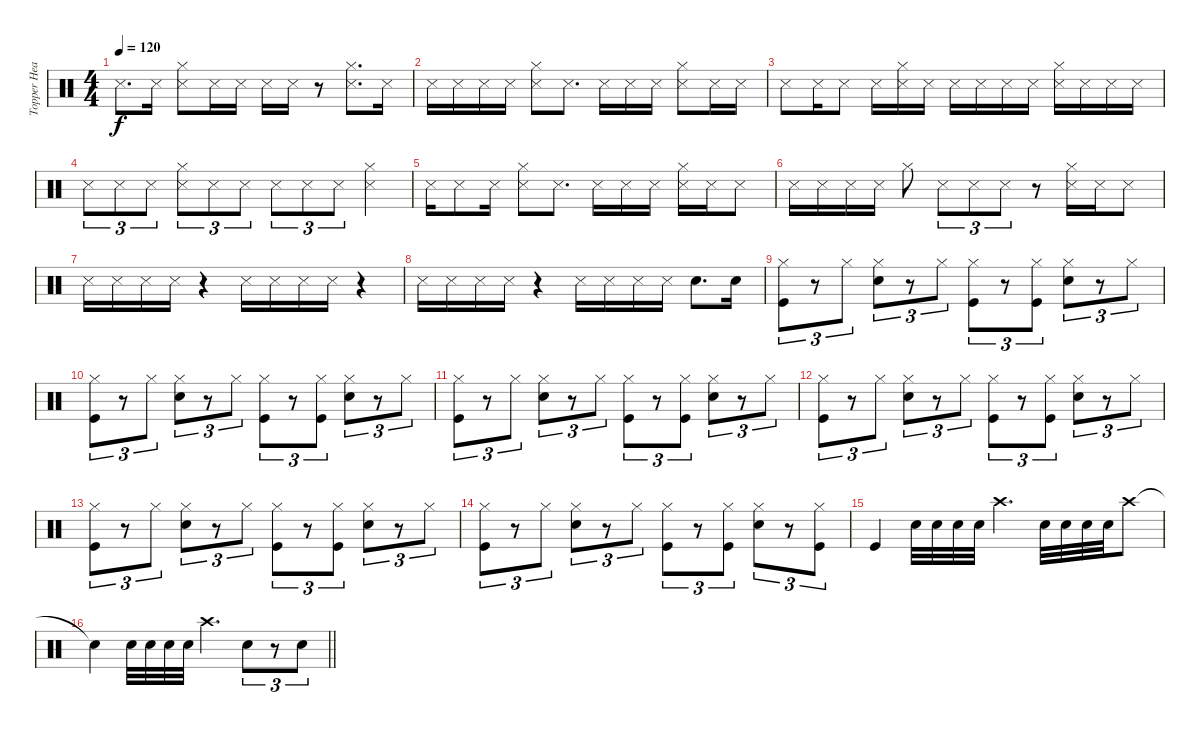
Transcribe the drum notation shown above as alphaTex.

\track ("Topper Headon" "Topper Hea") {instrument percussion}
\staff {score}
\articulation defaults
\ts (4 4)
\tempo 120
\clef neutral
\ks c "Metronome (hit)".8{d dy f} "Metronome (hit)".16
("Hi-Hat (closed)" "Metronome (hit)").8 "Metronome (hit)".16 "Metronome (hit)".16 "Metronome (hit)".16 "Metronome (hit)".16 r.8 ("Hi-Hat (closed)" "Metronome (hit)").8{d} "Metronome (hit)".16 |
"Metronome (hit)".16 "Metronome (hit)".16 "Metronome (hit)".16 "Metronome (hit)".16 ("Hi-Hat (closed)" "Metronome (hit)").8 "Metronome (hit)".8{d} "Metronome (hit)".16 "Metronome (hit)".16 "Metronome (hit)".16 ("Hi-Hat (closed)" "Metronome (hit)").8 "Metronome (hit)".16 "Metronome (hit)".16 |
"Metronome (hit)".8 "Metronome (hit)".16 "Metronome (hit)".8 "Metronome (hit)".16 ("Hi-Hat (closed)" "Metronome (hit)").16 "Metronome (hit)".16 "Metronome (hit)".16 "Metronome (hit)".16 "Metronome (hit)".16 "Metronome (hit)".16 ("Hi-Hat (closed)" "Metronome (hit)").16 "Metronome (hit)".16 "Metronome (hit)".16 "Metronome (hit)".16 |
"Metronome (hit)".8{tu (3 2)} "Metronome (hit)".8{tu (3 2)} "Metronome (hit)".8{tu (3 2)} ("Hi-Hat (closed)" "Metronome (hit)").8{tu (3 2)} "Metronome (hit)".8{tu (3 2)} "Metronome (hit)".8{tu (3 2)} "Metronome (hit)".8{tu (3 2)} "Metronome (hit)".8{tu (3 2)} "Metronome (hit)".8{tu (3 2)} ("Hi-Hat (closed)" "Metronome (hit)").4 |
"Metronome (hit)".16 "Metronome (hit)".8 "Metronome (hit)".16 ("Hi-Hat (closed)" "Metronome (hit)").8 "Metronome (hit)".8{d} "Metronome (hit)".16 "Metronome (hit)".16 "Metronome (hit)".16 ("Hi-Hat (closed)" "Metronome (hit)").16 "Metronome (hit)".16 "Metronome (hit)".8 |
"Metronome (hit)".16 "Metronome (hit)".16 "Metronome (hit)".16 "Metronome (hit)".16 "Hi-Hat (closed)".8 "Metronome (hit)".8{tu (3 2)} "Metronome (hit)".8{tu (3 2)} "Metronome (hit)".8{tu (3 2)} r.8 ("Hi-Hat (closed)" "Metronome (hit)").16 "Metronome (hit)".16 "Metronome (hit)".8 |
"Metronome (hit)".16 "Metronome (hit)".16 "Metronome (hit)".16 "Metronome (hit)".16 r.4 "Metronome (hit)".16 "Metronome (hit)".16 "Metronome (hit)".16 "Metronome (hit)".16 r.4 |
"Metronome (hit)".16 "Metronome (hit)".16 "Metronome (hit)".16 "Metronome (hit)".16 r.4 "Metronome (hit)".16 "Metronome (hit)".16 "Metronome (hit)".16 "Metronome (hit)".16 "Electric Snare (hit)".8{d} "Electric Snare (hit)".16 |
("Hi-Hat (closed)" "Kick (hit)").8{tu (3 2)} r.8{tu (3 2)} "Hi-Hat (closed)".8{tu (3 2)} ("Hi-Hat (closed)" "Electric Snare (hit)").8{tu (3 2)} r.8{tu (3 2)} "Hi-Hat (closed)".8{tu (3 2)} ("Hi-Hat (closed)" "Kick (hit)").8{tu (3 2)} r.8{tu (3 2)} ("Hi-Hat (closed)" "Kick (hit)").8{tu (3 2)} ("Hi-Hat (closed)" "Electric Snare (hit)").8{tu (3 2)} r.8{tu (3 2)} "Hi-Hat (closed)".8{tu (3 2)} |
("Hi-Hat (closed)" "Kick (hit)").8{tu (3 2)} r.8{tu (3 2)} "Hi-Hat (closed)".8{tu (3 2)} ("Hi-Hat (closed)" "Electric Snare (hit)").8{tu (3 2)} r.8{tu (3 2)} "Hi-Hat (closed)".8{tu (3 2)} ("Hi-Hat (closed)" "Kick (hit)").8{tu (3 2)} r.8{tu (3 2)} ("Hi-Hat (closed)" "Kick (hit)").8{tu (3 2)} ("Hi-Hat (closed)" "Electric Snare (hit)").8{tu (3 2)} r.8{tu (3 2)} "Hi-Hat (closed)".8{tu (3 2)} |
("Hi-Hat (closed)" "Kick (hit)").8{tu (3 2)} r.8{tu (3 2)} "Hi-Hat (closed)".8{tu (3 2)} ("Hi-Hat (closed)" "Electric Snare (hit)").8{tu (3 2)} r.8{tu (3 2)} "Hi-Hat (closed)".8{tu (3 2)} ("Hi-Hat (closed)" "Kick (hit)").8{tu (3 2)} r.8{tu (3 2)} ("Hi-Hat (closed)" "Kick (hit)").8{tu (3 2)} ("Hi-Hat (closed)" "Electric Snare (hit)").8{tu (3 2)} r.8{tu (3 2)} "Hi-Hat (closed)".8{tu (3 2)} |
("Hi-Hat (closed)" "Kick (hit)").8{tu (3 2)} r.8{tu (3 2)} "Hi-Hat (closed)".8{tu (3 2)} ("Hi-Hat (closed)" "Electric Snare (hit)").8{tu (3 2)} r.8{tu (3 2)} "Hi-Hat (closed)".8{tu (3 2)} ("Hi-Hat (closed)" "Kick (hit)").8{tu (3 2)} r.8{tu (3 2)} ("Hi-Hat (closed)" "Kick (hit)").8{tu (3 2)} ("Hi-Hat (closed)" "Electric Snare (hit)").8{tu (3 2)} r.8{tu (3 2)} "Hi-Hat (closed)".8{tu (3 2)} |
("Hi-Hat (closed)" "Kick (hit)").8{tu (3 2)} r.8{tu (3 2)} "Hi-Hat (closed)".8{tu (3 2)} ("Hi-Hat (closed)" "Electric Snare (hit)").8{tu (3 2)} r.8{tu (3 2)} "Hi-Hat (closed)".8{tu (3 2)} ("Hi-Hat (closed)" "Kick (hit)").8{tu (3 2)} r.8{tu (3 2)} ("Hi-Hat (closed)" "Kick (hit)").8{tu (3 2)} ("Hi-Hat (closed)" "Electric Snare (hit)").8{tu (3 2)} r.8{tu (3 2)} "Hi-Hat (closed)".8{tu (3 2)} |
("Hi-Hat (closed)" "Kick (hit)").8{tu (3 2)} r.8{tu (3 2)} "Hi-Hat (closed)".8{tu (3 2)} ("Hi-Hat (closed)" "Electric Snare (hit)").8{tu (3 2)} r.8{tu (3 2)} "Hi-Hat (closed)".8{tu (3 2)} ("Hi-Hat (closed)" "Kick (hit)").8{tu (3 2)} r.8{tu (3 2)} ("Hi-Hat (closed)" "Kick (hit)").8{tu (3 2)} ("Hi-Hat (closed)" "Electric Snare (hit)").8{tu (3 2)} r.8{tu (3 2)} ("Hi-Hat (closed)" "Kick (hit)").8{tu (3 2)} |
"Kick (hit)".4 "Electric Snare (hit)".32 "Electric Snare (hit)".32 "Electric Snare (hit)".32 "Electric Snare (hit)".32 "Crash high (hit)".4{d} "Electric Snare (hit)".32 "Electric Snare (hit)".32 "Electric Snare (hit)".32 "Electric Snare (hit)".32 "Crash high (hit)".8 |
\barLineRight lightlight "Snare (hit)"{t}.4 "Electric Snare (hit)".32 "Electric Snare (hit)".32 "Electric Snare (hit)".32 "Electric Snare (hit)".32 "Crash high (hit)".4{d} "Electric Snare (hit)".8{tu (3 2)}
r.8{tu (3 2)} "Electric Snare (hit)".8{tu (3 2)}
